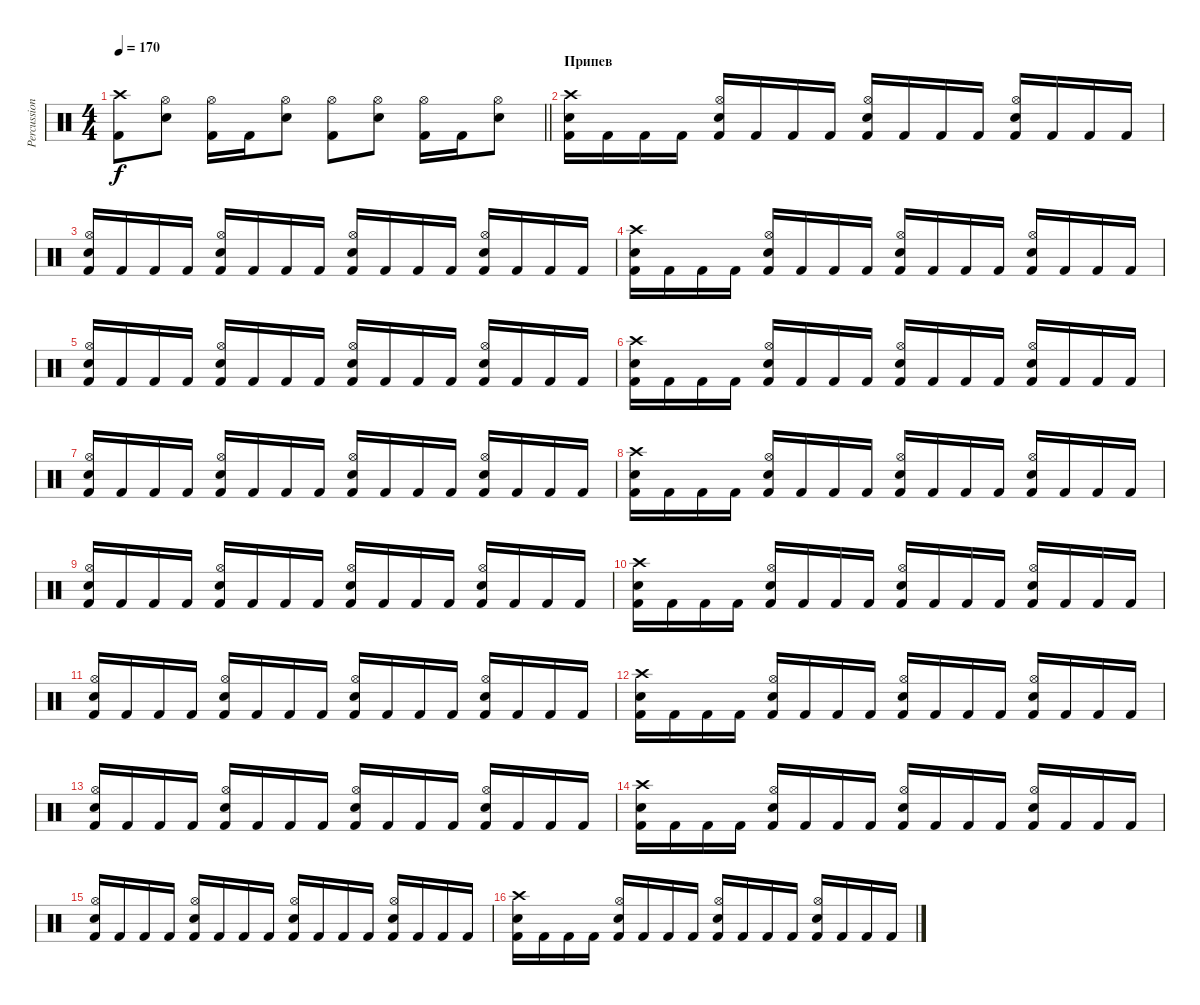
\track ("Percussion" "Percussion") {instrument percussion}
\staff {score}
\articulation defaults
\ts (4 4)
\tempo 170
\clef neutral
\barLineRight lightlight
\ks c
("Crash high (hit)" "Kick (hit) 2").8{dy f} ("Hi-Hat (open)" "Snare (hit) 2").8 ("Hi-Hat (open)" "Kick (hit) 2").16 "Kick (hit) 2".16 ("Hi-Hat (open)" "Snare (hit) 2").8 ("Hi-Hat (open)" "Kick (hit) 2").8 ("Hi-Hat (open)" "Snare (hit) 2").8 ("Hi-Hat (open)" "Kick (hit) 2").16 "Kick (hit) 2".16 ("Hi-Hat (open)" "Snare (hit) 2").8 |
\section ("" "Припев")
("Crash high (hit)" "Snare (hit) 2" "Kick (hit) 2").16 "Kick (hit) 2".16 "Kick (hit) 2".16 "Kick (hit) 2".16 ("Hi-Hat (open)" "Snare (hit) 2" "Kick (hit) 2").16 "Kick (hit) 2".16 "Kick (hit) 2".16 "Kick (hit) 2".16 ("Hi-Hat (open)" "Snare (hit) 2" "Kick (hit) 2").16 "Kick (hit) 2".16 "Kick (hit) 2".16 "Kick (hit) 2".16 ("Hi-Hat (open)" "Snare (hit) 2" "Kick (hit) 2").16 "Kick (hit) 2".16 "Kick (hit) 2".16 "Kick (hit) 2".16 |
("Hi-Hat (open)" "Snare (hit) 2" "Kick (hit) 2").16 "Kick (hit) 2".16 "Kick (hit) 2".16 "Kick (hit) 2".16 ("Hi-Hat (open)" "Snare (hit) 2" "Kick (hit) 2").16 "Kick (hit) 2".16 "Kick (hit) 2".16 "Kick (hit) 2".16 ("Hi-Hat (open)" "Snare (hit) 2" "Kick (hit) 2").16 "Kick (hit) 2".16 "Kick (hit) 2".16 "Kick (hit) 2".16 ("Hi-Hat (open)" "Snare (hit) 2" "Kick (hit) 2").16 "Kick (hit) 2".16 "Kick (hit) 2".16 "Kick (hit) 2".16 |
("Crash high (hit)" "Snare (hit) 2" "Kick (hit) 2").16 "Kick (hit) 2".16 "Kick (hit) 2".16 "Kick (hit) 2".16 ("Hi-Hat (open)" "Snare (hit) 2" "Kick (hit) 2").16 "Kick (hit) 2".16 "Kick (hit) 2".16 "Kick (hit) 2".16 ("Hi-Hat (open)" "Snare (hit) 2" "Kick (hit) 2").16 "Kick (hit) 2".16 "Kick (hit) 2".16 "Kick (hit) 2".16 ("Hi-Hat (open)" "Snare (hit) 2" "Kick (hit) 2").16 "Kick (hit) 2".16 "Kick (hit) 2".16 "Kick (hit) 2".16 |
("Hi-Hat (open)" "Snare (hit) 2" "Kick (hit) 2").16 "Kick (hit) 2".16 "Kick (hit) 2".16 "Kick (hit) 2".16 ("Hi-Hat (open)" "Snare (hit) 2" "Kick (hit) 2").16 "Kick (hit) 2".16 "Kick (hit) 2".16 "Kick (hit) 2".16 ("Hi-Hat (open)" "Snare (hit) 2" "Kick (hit) 2").16 "Kick (hit) 2".16 "Kick (hit) 2".16 "Kick (hit) 2".16 ("Hi-Hat (open)" "Snare (hit) 2" "Kick (hit) 2").16 "Kick (hit) 2".16 "Kick (hit) 2".16 "Kick (hit) 2".16 |
("Crash high (hit)" "Snare (hit) 2" "Kick (hit) 2").16 "Kick (hit) 2".16 "Kick (hit) 2".16 "Kick (hit) 2".16 ("Hi-Hat (open)" "Snare (hit) 2" "Kick (hit) 2").16 "Kick (hit) 2".16 "Kick (hit) 2".16 "Kick (hit) 2".16 ("Hi-Hat (open)" "Snare (hit) 2" "Kick (hit) 2").16 "Kick (hit) 2".16 "Kick (hit) 2".16 "Kick (hit) 2".16 ("Hi-Hat (open)" "Snare (hit) 2" "Kick (hit) 2").16 "Kick (hit) 2".16 "Kick (hit) 2".16 "Kick (hit) 2".16 |
("Hi-Hat (open)" "Snare (hit) 2" "Kick (hit) 2").16 "Kick (hit) 2".16 "Kick (hit) 2".16 "Kick (hit) 2".16 ("Hi-Hat (open)" "Snare (hit) 2" "Kick (hit) 2").16 "Kick (hit) 2".16 "Kick (hit) 2".16 "Kick (hit) 2".16 ("Hi-Hat (open)" "Snare (hit) 2" "Kick (hit) 2").16 "Kick (hit) 2".16 "Kick (hit) 2".16 "Kick (hit) 2".16 ("Hi-Hat (open)" "Snare (hit) 2" "Kick (hit) 2").16 "Kick (hit) 2".16 "Kick (hit) 2".16 "Kick (hit) 2".16 |
("Crash high (hit)" "Snare (hit) 2" "Kick (hit) 2").16 "Kick (hit) 2".16 "Kick (hit) 2".16 "Kick (hit) 2".16 ("Hi-Hat (open)" "Snare (hit) 2" "Kick (hit) 2").16 "Kick (hit) 2".16 "Kick (hit) 2".16 "Kick (hit) 2".16 ("Hi-Hat (open)" "Snare (hit) 2" "Kick (hit) 2").16 "Kick (hit) 2".16 "Kick (hit) 2".16 "Kick (hit) 2".16 ("Hi-Hat (open)" "Snare (hit) 2" "Kick (hit) 2").16 "Kick (hit) 2".16 "Kick (hit) 2".16 "Kick (hit) 2".16 |
("Hi-Hat (open)" "Snare (hit) 2" "Kick (hit) 2").16 "Kick (hit) 2".16 "Kick (hit) 2".16 "Kick (hit) 2".16 ("Hi-Hat (open)" "Snare (hit) 2" "Kick (hit) 2").16 "Kick (hit) 2".16 "Kick (hit) 2".16 "Kick (hit) 2".16 ("Hi-Hat (open)" "Snare (hit) 2" "Kick (hit) 2").16 "Kick (hit) 2".16 "Kick (hit) 2".16 "Kick (hit) 2".16 ("Hi-Hat (open)" "Snare (hit) 2" "Kick (hit) 2").16 "Kick (hit) 2".16 "Kick (hit) 2".16 "Kick (hit) 2".16 |
("Crash high (hit)" "Snare (hit) 2" "Kick (hit) 2").16 "Kick (hit) 2".16 "Kick (hit) 2".16 "Kick (hit) 2".16 ("Hi-Hat (open)" "Snare (hit) 2" "Kick (hit) 2").16 "Kick (hit) 2".16 "Kick (hit) 2".16 "Kick (hit) 2".16 ("Hi-Hat (open)" "Snare (hit) 2" "Kick (hit) 2").16 "Kick (hit) 2".16 "Kick (hit) 2".16 "Kick (hit) 2".16 ("Hi-Hat (open)" "Snare (hit) 2" "Kick (hit) 2").16 "Kick (hit) 2".16 "Kick (hit) 2".16 "Kick (hit) 2".16 |
("Hi-Hat (open)" "Snare (hit) 2" "Kick (hit) 2").16 "Kick (hit) 2".16 "Kick (hit) 2".16 "Kick (hit) 2".16 ("Hi-Hat (open)" "Snare (hit) 2" "Kick (hit) 2").16 "Kick (hit) 2".16 "Kick (hit) 2".16 "Kick (hit) 2".16 ("Hi-Hat (open)" "Snare (hit) 2" "Kick (hit) 2").16 "Kick (hit) 2".16 "Kick (hit) 2".16 "Kick (hit) 2".16 ("Hi-Hat (open)" "Snare (hit) 2" "Kick (hit) 2").16 "Kick (hit) 2".16 "Kick (hit) 2".16 "Kick (hit) 2".16 |
("Crash high (hit)" "Snare (hit) 2" "Kick (hit) 2").16 "Kick (hit) 2".16 "Kick (hit) 2".16 "Kick (hit) 2".16 ("Hi-Hat (open)" "Snare (hit) 2" "Kick (hit) 2").16 "Kick (hit) 2".16 "Kick (hit) 2".16 "Kick (hit) 2".16 ("Hi-Hat (open)" "Snare (hit) 2" "Kick (hit) 2").16 "Kick (hit) 2".16 "Kick (hit) 2".16 "Kick (hit) 2".16 ("Hi-Hat (open)" "Snare (hit) 2" "Kick (hit) 2").16 "Kick (hit) 2".16 "Kick (hit) 2".16 "Kick (hit) 2".16 |
("Hi-Hat (open)" "Snare (hit) 2" "Kick (hit) 2").16 "Kick (hit) 2".16 "Kick (hit) 2".16 "Kick (hit) 2".16 ("Hi-Hat (open)" "Snare (hit) 2" "Kick (hit) 2").16 "Kick (hit) 2".16 "Kick (hit) 2".16 "Kick (hit) 2".16 ("Hi-Hat (open)" "Snare (hit) 2" "Kick (hit) 2").16 "Kick (hit) 2".16 "Kick (hit) 2".16 "Kick (hit) 2".16 ("Hi-Hat (open)" "Snare (hit) 2" "Kick (hit) 2").16 "Kick (hit) 2".16 "Kick (hit) 2".16 "Kick (hit) 2".16 |
("Crash high (hit)" "Snare (hit) 2" "Kick (hit) 2").16 "Kick (hit) 2".16 "Kick (hit) 2".16 "Kick (hit) 2".16 ("Hi-Hat (open)" "Snare (hit) 2" "Kick (hit) 2").16 "Kick (hit) 2".16 "Kick (hit) 2".16 "Kick (hit) 2".16 ("Hi-Hat (open)" "Snare (hit) 2" "Kick (hit) 2").16 "Kick (hit) 2".16 "Kick (hit) 2".16 "Kick (hit) 2".16 ("Hi-Hat (open)" "Snare (hit) 2" "Kick (hit) 2").16 "Kick (hit) 2".16 "Kick (hit) 2".16 "Kick (hit) 2".16 |
("Hi-Hat (open)" "Snare (hit) 2" "Kick (hit) 2").16 "Kick (hit) 2".16 "Kick (hit) 2".16 "Kick (hit) 2".16 ("Hi-Hat (open)" "Snare (hit) 2" "Kick (hit) 2").16 "Kick (hit) 2".16 "Kick (hit) 2".16 "Kick (hit) 2".16 ("Hi-Hat (open)" "Snare (hit) 2" "Kick (hit) 2").16 "Kick (hit) 2".16 "Kick (hit) 2".16 "Kick (hit) 2".16 ("Hi-Hat (open)" "Snare (hit) 2" "Kick (hit) 2").16 "Kick (hit) 2".16 "Kick (hit) 2".16 "Kick (hit) 2".16 |
("Crash high (hit)" "Snare (hit) 2" "Kick (hit) 2").16 "Kick (hit) 2".16 "Kick (hit) 2".16 "Kick (hit) 2".16 ("Hi-Hat (open)" "Snare (hit) 2" "Kick (hit) 2").16 "Kick (hit) 2".16 "Kick (hit) 2".16 "Kick (hit) 2".16 ("Hi-Hat (open)" "Snare (hit) 2" "Kick (hit) 2").16 "Kick (hit) 2".16 "Kick (hit) 2".16 "Kick (hit) 2".16 ("Hi-Hat (open)" "Snare (hit) 2" "Kick (hit) 2").16 "Kick (hit) 2".16 "Kick (hit) 2".16 "Kick (hit) 2".16
